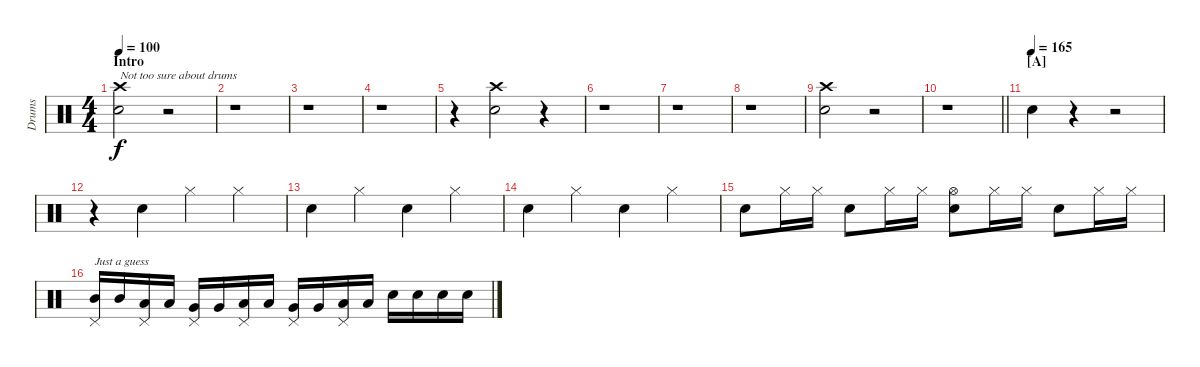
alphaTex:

\track ("Drums" "Drums") {instrument percussion}
\staff {score}
\articulation defaults
\ts (4 4)
\section ("" "Intro")
\tempo 100
\clef neutral
\ks c
("Crash high (hit)" "Electric Snare (hit)").2{txt "Not too sure about drums" dy f} r.2 |
r.1 |
r.1 |
r.1 |
r.4 ("Crash high (hit)" "Electric Snare (hit)").2 r.4 |
r.1 |
r.1 |
r.1 |
("Crash high (hit)" "Electric Snare (hit)").2 r.2 |
\barLineRight lightlight
r.1 |
\section ("" "[A]")
\tempo (165)
"Electric Snare (hit)".4 r.4 r.2 |
r.4 "Electric Snare (hit)".4 "Hi-Hat (closed)".4 "Hi-Hat (closed)".4 |
"Electric Snare (hit)".4 "Hi-Hat (closed)".4 "Electric Snare (hit)".4 "Hi-Hat (closed)".4 |
"Electric Snare (hit)".4 "Hi-Hat (closed)".4 "Electric Snare (hit)".4 "Hi-Hat (closed)".4 |
"Electric Snare (hit)".8 "Hi-Hat (closed)".16 "Hi-Hat (closed)".16 "Electric Snare (hit)".8 "Hi-Hat (closed)".16 "Hi-Hat (closed)".16 ("Hi-Hat (open)" "Electric Snare (hit)").8 "Hi-Hat (closed)".16 "Hi-Hat (closed)".16 "Electric Snare (hit)".8 "Hi-Hat (closed)".16 "Hi-Hat (closed)".16 |
("Pedal Hi-Hat (hit)" "Mid Tom (hit)").16{txt "Just a guess"} "Mid Tom (hit)".16 ("Pedal Hi-Hat (hit)" "Low Tom (hit)").16 "Low Tom (hit)".16 ("Pedal Hi-Hat (hit)" "Very Low Tom (hit)").16 "Very Low Tom (hit)".16 ("Pedal Hi-Hat (hit)" "Low Floor Tom (hit)").16 "Low Floor Tom (hit)".16 ("Pedal Hi-Hat (hit)" "Very Low Tom (hit)").16 "Very Low Tom (hit)".16 ("Pedal Hi-Hat (hit)" "Low Floor Tom (hit)").16 "Low Floor Tom (hit)".16 "Electric Snare (hit)".16 "Electric Snare (hit)".16 "Electric Snare (hit)".16 "Electric Snare (hit)".16
